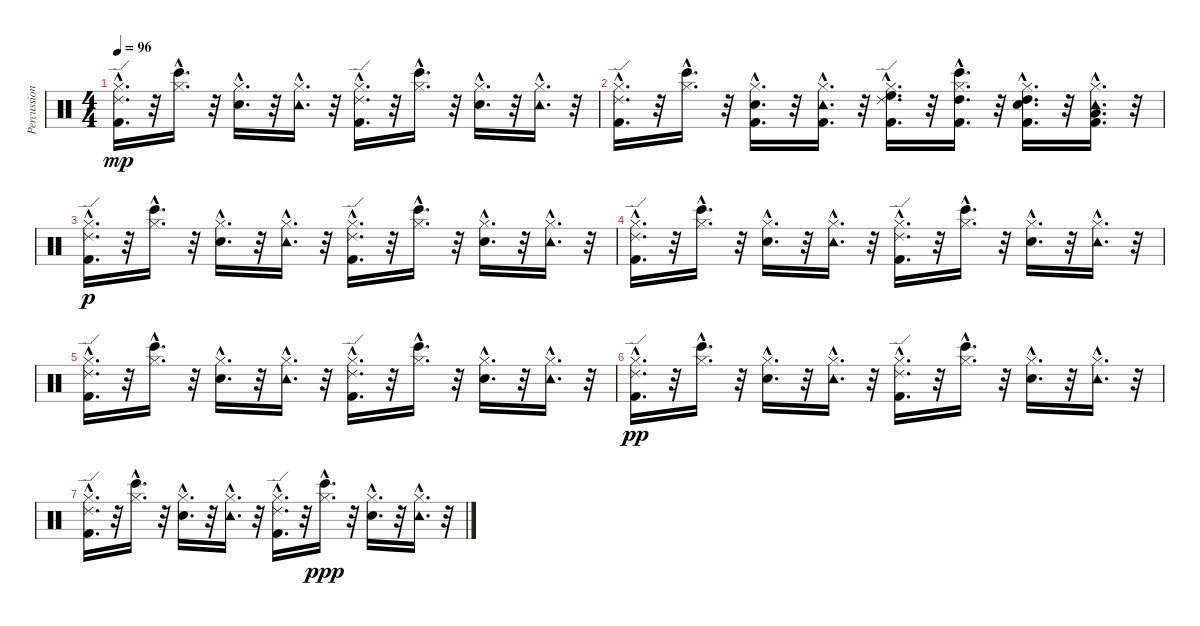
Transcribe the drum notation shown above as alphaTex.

\track ("Percussion (Channel 10)" "Percussion") {instrument percussion}
\staff {score}
\articulation defaults
\ts (4 4)
\tempo 96
\clef neutral
\ks c
("Hi-Hat (closed)"{hac} "Kick (hit) 2"{hac} "Ride (edge) 2"{hac}).16{d dy mp} r.32 ("Hi-Hat (closed)"{hac} "Bongo High (hit)"{hac}).16{d} r.32 ("Hi-Hat (closed)"{hac} "Snare (hit) 2"{hac}).16{d} r.32 ("Hi-Hat (closed)"{hac} "Tambourine (hit)"{hac}).16{d} r.32 ("Hi-Hat (closed)"{hac} "Kick (hit) 2"{hac} "Ride (edge) 2"{hac}).16{d} r.32 ("Hi-Hat (closed)"{hac} "Bongo High (hit)"{hac}).16{d} r.32 ("Hi-Hat (closed)"{hac} "Snare (hit) 2"{hac}).16{d} r.32 ("Hi-Hat (closed)"{hac} "Tambourine (hit)"{hac}).16{d} r.32 |
("Hi-Hat (closed)"{hac} "Kick (hit) 2"{hac} "Ride (edge) 2"{hac}).16{d} r.32 ("Hi-Hat (closed)"{hac} "Bongo High (hit)"{hac}).16{d} r.32 ("Kick (hit) 2"{hac} "Hi-Hat (closed)"{hac} "Snare (hit) 2"{hac}).16{d} r.32 ("Kick (hit) 2"{hac} "Hi-Hat (closed)"{hac} "Tambourine (hit)"{hac}).16{d} r.32 ("High Floor Tom (hit)"{hac} "Hi-Hat (closed)"{hac} "Kick (hit) 2"{hac} "Ride (edge) 2"{hac}).16{d} r.32 ("High Tom (hit)"{hac} "Kick (hit) 2"{hac} "Hi-Hat (closed)"{hac} "Bongo High (hit)"{hac}).16{d} r.32 ("High Tom (hit)"{hac} "Kick (hit) 2"{hac} "Hi-Hat (closed)"{hac} "Snare (hit) 2"{hac}).16{d} r.32 ("Low Tom (hit)"{hac} "Kick (hit) 2"{hac} "Hi-Hat (closed)"{hac} "Tambourine (hit)"{hac}).16{d} r.32 |
("Hi-Hat (closed)"{hac} "Kick (hit) 2"{hac} "Ride (edge) 2"{hac}).16{d dy p} r.32 ("Hi-Hat (closed)"{hac} "Bongo High (hit)"{hac}).16{d} r.32 ("Hi-Hat (closed)"{hac} "Snare (hit) 2"{hac}).16{d} r.32 ("Tambourine (hit)"{hac} "Hi-Hat (closed)"{hac}).16{d} r.32 ("Ride (edge) 2"{hac} "Hi-Hat (closed)"{hac} "Kick (hit) 2"{hac}).16{d} r.32 ("Bongo High (hit)"{hac} "Hi-Hat (closed)"{hac}).16{d} r.32 ("Hi-Hat (closed)"{hac} "Snare (hit) 2"{hac}).16{d} r.32 ("Tambourine (hit)"{hac} "Hi-Hat (closed)"{hac}).16{d} r.32 |
("Ride (edge) 2"{hac} "Kick (hit) 2"{hac} "Hi-Hat (closed)"{hac}).16{d} r.32 ("Bongo High (hit)"{hac} "Hi-Hat (closed)"{hac}).16{d} r.32 ("Snare (hit) 2"{hac} "Hi-Hat (closed)"{hac}).16{d} r.32 ("Hi-Hat (closed)"{hac} "Tambourine (hit)"{hac}).16{d} r.32 ("Kick (hit) 2"{hac} "Hi-Hat (closed)"{hac} "Ride (edge) 2"{hac}).16{d} r.32 ("Hi-Hat (closed)"{hac} "Bongo High (hit)"{hac}).16{d} r.32 ("Snare (hit) 2"{hac} "Hi-Hat (closed)"{hac}).16{d} r.32 ("Hi-Hat (closed)"{hac} "Tambourine (hit)"{hac}).16{d} r.32 |
("Ride (edge) 2"{hac} "Kick (hit) 2"{hac} "Hi-Hat (closed)"{hac}).16{d} r.32 ("Bongo High (hit)"{hac} "Hi-Hat (closed)"{hac}).16{d} r.32 ("Snare (hit) 2"{hac} "Hi-Hat (closed)"{hac}).16{d} r.32 ("Tambourine (hit)"{hac} "Hi-Hat (closed)"{hac}).16{d} r.32 ("Ride (edge) 2"{hac} "Kick (hit) 2"{hac} "Hi-Hat (closed)"{hac}).16{d} r.32 ("Bongo High (hit)"{hac} "Hi-Hat (closed)"{hac}).16{d} r.32 ("Snare (hit) 2"{hac} "Hi-Hat (closed)"{hac}).16{d} r.32 ("Tambourine (hit)"{hac} "Hi-Hat (closed)"{hac}).16{d} r.32 |
("Hi-Hat (closed)"{hac} "Kick (hit) 2"{hac} "Ride (edge) 2"{hac}).16{d dy pp} r.32 ("Hi-Hat (closed)"{hac} "Bongo High (hit)"{hac}).16{d} r.32 ("Hi-Hat (closed)"{hac} "Snare (hit) 2"{hac}).16{d} r.32 ("Hi-Hat (closed)"{hac} "Tambourine (hit)"{hac}).16{d} r.32 ("Hi-Hat (closed)"{hac} "Kick (hit) 2"{hac} "Ride (edge) 2"{hac}).16{d} r.32 ("Hi-Hat (closed)"{hac} "Bongo High (hit)"{hac}).16{d} r.32 ("Hi-Hat (closed)"{hac} "Snare (hit) 2"{hac}).16{d} r.32 ("Hi-Hat (closed)"{hac} "Tambourine (hit)"{hac}).16{d} r.32 |
("Hi-Hat (closed)"{hac} "Kick (hit) 2"{hac} "Ride (edge) 2"{hac}).16{d} r.32 ("Hi-Hat (closed)"{hac} "Bongo High (hit)"{hac}).16{d} r.32 ("Hi-Hat (closed)"{hac} "Snare (hit) 2"{hac}).16{d} r.32 ("Hi-Hat (closed)"{hac} "Tambourine (hit)"{hac}).16{d} r.32 ("Hi-Hat (closed)"{hac} "Kick (hit) 2"{hac} "Ride (edge) 2"{hac}).16{d} r.32 ("Hi-Hat (closed)"{hac} "Bongo High (hit)"{hac}).16{d dy ppp} r.32 ("Hi-Hat (closed)"{hac} "Snare (hit) 2"{hac}).16{d} r.32 ("Hi-Hat (closed)"{hac} "Tambourine (hit)"{hac}).16{d} r.32
